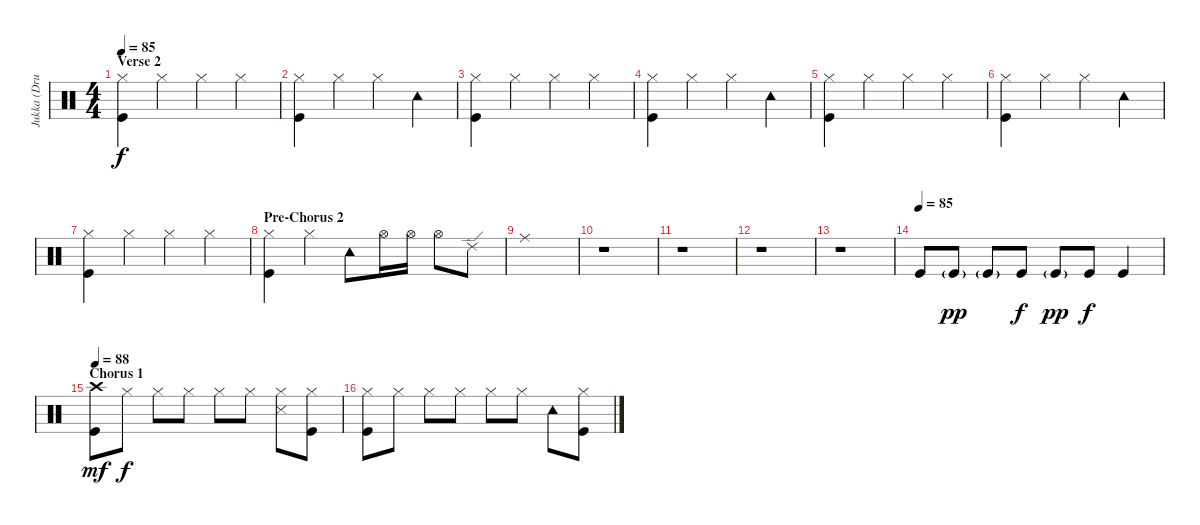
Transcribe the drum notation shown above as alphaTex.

\track ("Jukka (Drums)" "Jukka (Dru") {instrument percussion}
\staff {score}
\articulation defaults
\ts (4 4)
\section ("" "Verse 2")
\tempo 85
\clef neutral
\ks c
("Hi-Hat (closed)" "Kick (hit)").4{dy f} "Hi-Hat (closed)".4 "Hi-Hat (closed)".4 "Hi-Hat (closed)".4 |
("Hi-Hat (closed)" "Kick (hit)").4 "Hi-Hat (closed)".4 "Hi-Hat (closed)".4 "Tambourine (hit)".4 |
("Hi-Hat (closed)" "Kick (hit)").4 "Hi-Hat (closed)".4 "Hi-Hat (closed)".4 "Hi-Hat (closed)".4 |
("Hi-Hat (closed)" "Kick (hit)").4 "Hi-Hat (closed)".4 "Hi-Hat (closed)".4 "Tambourine (hit)".4 |
("Hi-Hat (closed)" "Kick (hit)").4 "Hi-Hat (closed)".4 "Hi-Hat (closed)".4 "Hi-Hat (closed)".4 |
("Hi-Hat (closed)" "Kick (hit)").4 "Hi-Hat (closed)".4 "Hi-Hat (closed)".4 "Tambourine (hit)".4 |
("Hi-Hat (closed)" "Kick (hit)").4 "Hi-Hat (closed)".4 "Hi-Hat (closed)".4 "Hi-Hat (closed)".4 |
\section ("" "Pre-Chorus 2")
("Hi-Hat (closed)" "Kick (hit)").4 "Hi-Hat (closed)".4 "Tambourine (hit)".8 "Hi-Hat (open)".16 "Hi-Hat (open)".16 "Hi-Hat (open)".8 "Ride (edge) 2".8 |
"Ride (middle)".1 |
r.1 |
r.1 |
r.1 |
r.1 |
\tempo (85)
"Kick (hit)".8 "Kick (hit)"{g}.8{dy pp} "Kick (hit)"{g}.8 "Kick (hit)".8{dy f} "Kick (hit)"{g}.8{dy pp} "Kick (hit)".8{dy f} "Kick (hit)".4 |
\section ("" "Chorus 1")
\tempo 88
("Crash high (hit)" "Kick (hit)").8{dy mf} "Hi-Hat (closed)".8{dy f} "Hi-Hat (closed)".8 "Hi-Hat (closed)".8 "Hi-Hat (closed)".8 "Hi-Hat (closed)".8 ("Hi-Hat (closed)" "Snare (side stick) 3").8 ("Hi-Hat (closed)" "Kick (hit)").8 |
("Hi-Hat (closed)" "Kick (hit)").8 "Hi-Hat (closed)".8 "Hi-Hat (closed)".8 "Hi-Hat (closed)".8 "Hi-Hat (closed)".8 "Hi-Hat (closed)".8 "Tambourine (hit)".8 ("Hi-Hat (closed)" "Kick (hit)").8
